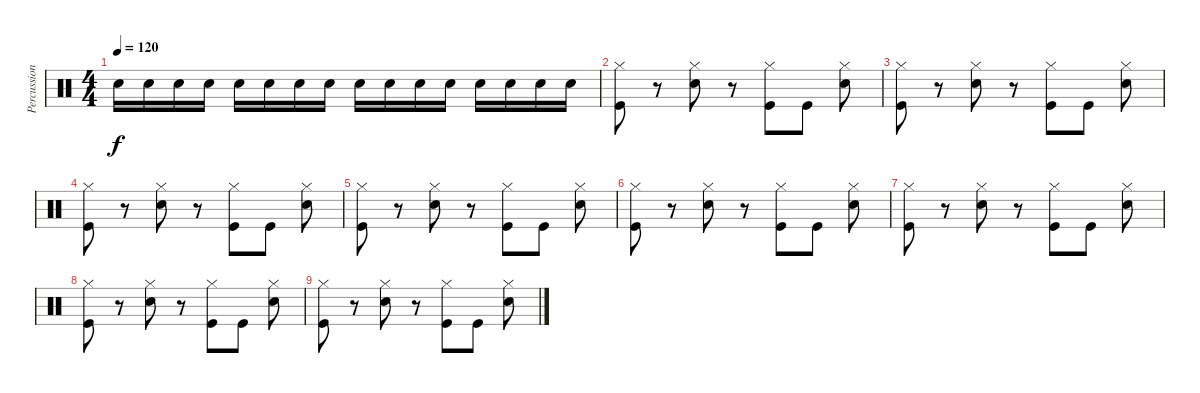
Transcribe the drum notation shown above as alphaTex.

\track ("Percussion" "Percussion") {instrument percussion}
\staff {score}
\articulation defaults
\ts (4 4)
\tempo 120
\clef neutral
\ks c "Snare (hit) 2".16{dy f} "Snare (hit) 2".16 "Snare (hit) 2".16 "Snare (hit) 2".16 "Snare (hit) 2".16 "Snare (hit) 2".16 "Snare (hit) 2".16 "Snare (hit) 2".16 "Snare (hit) 2".16 "Snare (hit) 2".16 "Snare (hit) 2".16 "Snare (hit) 2".16 "Snare (hit) 2".16 "Snare (hit) 2".16 "Snare (hit) 2".16 "Snare (hit) 2".16
|
("Hi-Hat (closed)" "Kick (hit)").8 r.8 ("Hi-Hat (closed)" "Snare (hit) 2").8 r.8 ("Hi-Hat (closed)" "Kick (hit)").8 "Kick (hit)".8 ("Hi-Hat (closed)" "Snare (hit) 2").8 |
("Hi-Hat (closed)" "Kick (hit)").8 r.8 ("Hi-Hat (closed)" "Snare (hit) 2").8 r.8 ("Hi-Hat (closed)" "Kick (hit)").8 "Kick (hit)".8 ("Hi-Hat (closed)" "Snare (hit) 2").8 |
("Hi-Hat (closed)" "Kick (hit)").8 r.8 ("Hi-Hat (closed)" "Snare (hit) 2").8 r.8 ("Hi-Hat (closed)" "Kick (hit)").8 "Kick (hit)".8 ("Hi-Hat (closed)" "Snare (hit) 2").8 |
("Hi-Hat (closed)" "Kick (hit)").8 r.8 ("Hi-Hat (closed)" "Snare (hit) 2").8 r.8 ("Hi-Hat (closed)" "Kick (hit)").8 "Kick (hit)".8 ("Hi-Hat (closed)" "Snare (hit) 2").8 |
("Hi-Hat (closed)" "Kick (hit)").8 r.8 ("Hi-Hat (closed)" "Snare (hit) 2").8 r.8 ("Hi-Hat (closed)" "Kick (hit)").8 "Kick (hit)".8 ("Hi-Hat (closed)" "Snare (hit) 2").8 |
("Hi-Hat (closed)" "Kick (hit)").8 r.8 ("Hi-Hat (closed)" "Snare (hit) 2").8 r.8 ("Hi-Hat (closed)" "Kick (hit)").8 "Kick (hit)".8 ("Hi-Hat (closed)" "Snare (hit) 2").8 |
("Hi-Hat (closed)" "Kick (hit)").8 r.8 ("Hi-Hat (closed)" "Snare (hit) 2").8 r.8 ("Hi-Hat (closed)" "Kick (hit)").8 "Kick (hit)".8 ("Hi-Hat (closed)" "Snare (hit) 2").8 |
("Hi-Hat (closed)" "Kick (hit)").8 r.8 ("Hi-Hat (closed)" "Snare (hit) 2").8 r.8 ("Hi-Hat (closed)" "Kick (hit)").8 "Kick (hit)".8 ("Hi-Hat (closed)" "Snare (hit) 2").8
